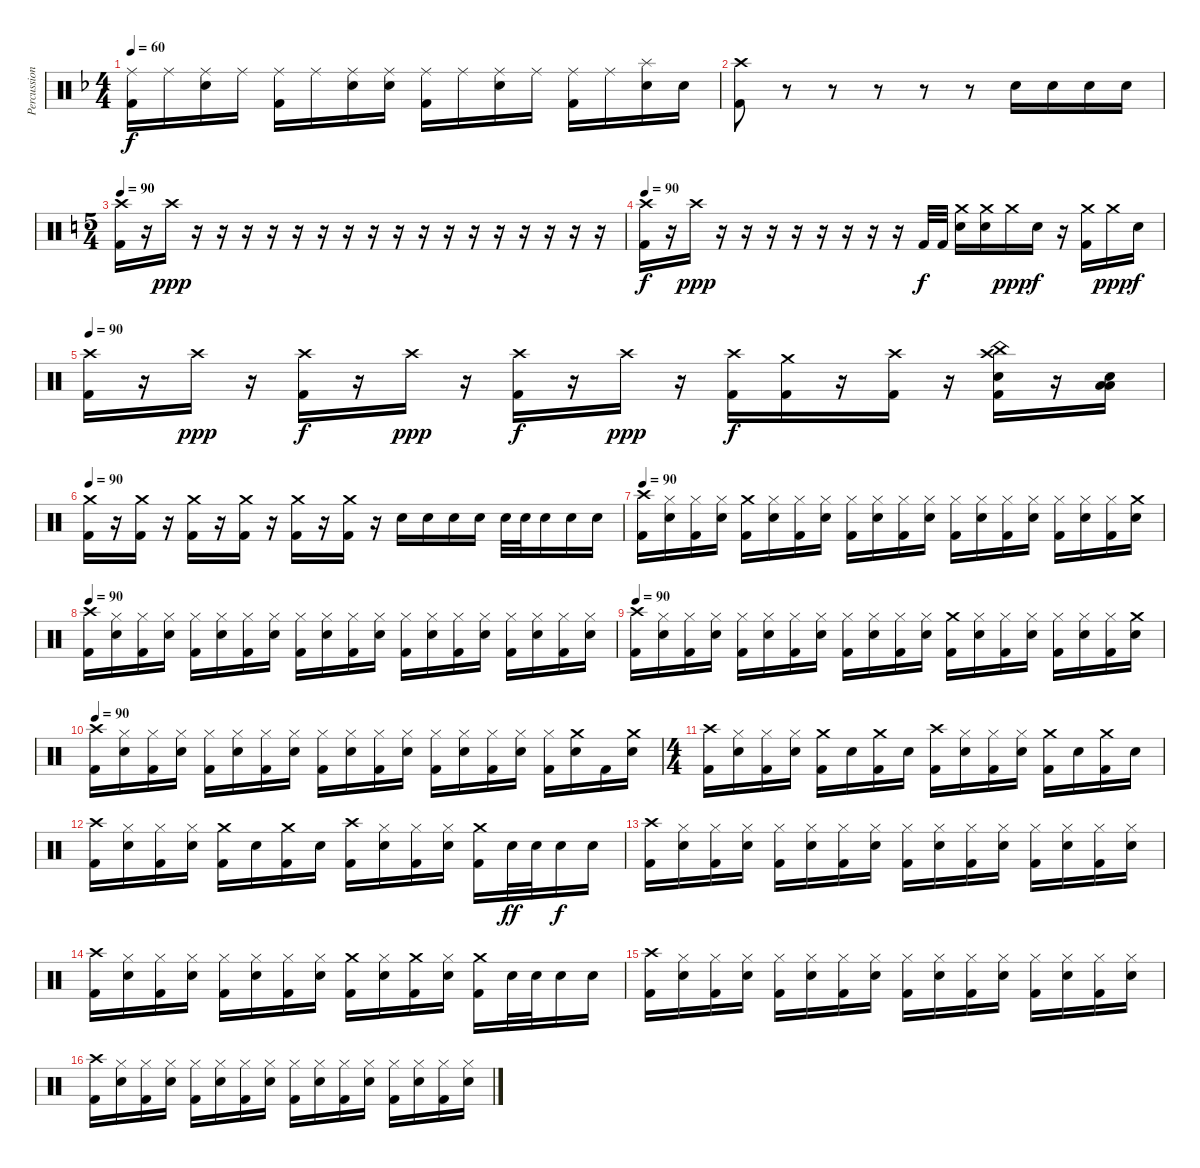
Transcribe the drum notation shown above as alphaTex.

\track ("Percussion" "Percussion") {instrument percussion}
\staff {score}
\articulation defaults
\ts (4 4)
\tempo 60
\clef neutral
\ks dminor
("Ride (middle)" "Kick (hit) 2").16{dy f} "Ride (middle)".16 ("Ride (middle)" "Snare (hit) 2").16 "Ride (middle)".16 ("Ride (middle)" "Kick (hit) 2").16 "Ride (middle)".16 ("Ride (middle)" "Snare (hit) 2").16 ("Ride (middle)" "Snare (hit) 2").16 ("Ride (middle)" "Kick (hit) 2").16 "Ride (middle)".16 ("Ride (middle)" "Snare (hit) 2").16 "Ride (middle)".16 ("Ride (middle)" "Kick (hit) 2").16 "Ride (middle)".16 ("Splash (hit)" "Snare (hit) 2").16 "Snare (hit) 2".16 |
("Crash high (hit)" "Kick (hit) 2").8 r.8 r.8 r.8 r.8 r.8 "Snare (hit) 2".16 "Snare (hit) 2".16 "Snare (hit) 2".16 "Snare (hit) 2".16 |
\ts (5 4)
\tempo 90
\ks c
("Crash high (hit)" "Kick (hit) 2").16 r.16 "Crash high (hit)".16{dy ppp} r.16 r.16 r.16 r.16 r.16 r.16 r.16 r.16 r.16 r.16 r.16 r.16 r.16 r.16 r.16 r.16 r.16 |
\tempo 90
("Crash high (hit)" "Kick (hit) 2").16{dy f} r.16 "Crash high (hit)".16{dy ppp} r.16 r.16 r.16 r.16 r.16 r.16 r.16 r.16 "Kick (hit) 2".32{dy f} "Kick (hit) 2".32 ("Crash medium (hit)" "Snare (hit) 2").16 ("Crash medium (hit)" "Snare (hit) 2").16 "Crash medium (hit)".16{dy ppp} "Snare (hit) 2".16{dy f} r.16 ("Crash medium (hit)" "Kick (hit) 2").16 "Crash medium (hit)".16{dy ppp} "Snare (hit) 2".16{dy f} |
\tempo 90
("Crash high (hit)" "Kick (hit) 2").16 r.16 "Crash high (hit)".16{dy ppp} r.16 ("Crash high (hit)" "Kick (hit) 2").16{dy f} r.16 "Crash high (hit)".16{dy ppp} r.16 ("Crash high (hit)" "Kick (hit) 2").16{dy f} r.16 "Crash high (hit)".16{dy ppp} r.16 ("Crash high (hit)" "Kick (hit) 2").16{dy f} ("Crash medium (hit)" "Kick (hit) 2").16 r.16 ("Crash high (hit)" "Kick (hit) 2").16 r.16 ("China (hit)" "Snare (hit) 2" "Crash high (hit)" "Kick (hit) 2").16 r.16 ("Low Tom (hit)" "Low Floor Tom (hit)" "Snare (hit) 2").16 |
\tempo 90
("Crash medium (hit)" "Kick (hit) 2").16 r.16 ("Crash medium (hit)" "Kick (hit) 2").16 r.16 ("Crash medium (hit)" "Kick (hit) 2").16 r.16 ("Crash medium (hit)" "Kick (hit) 2").16 r.16 ("Crash medium (hit)" "Kick (hit) 2").16 r.16 ("Crash medium (hit)" "Kick (hit) 2").16 r.16 "Snare (hit) 2".16 "Snare (hit) 2".16 "Snare (hit) 2".16 "Snare (hit) 2".16 "Snare (hit) 2".32 "Snare (hit) 2".32 "Snare (hit) 2".16 "Snare (hit) 2".16 "Snare (hit) 2".16 |
\tempo 90
("Crash high (hit)" "Kick (hit) 2").16 ("Hi-Hat (closed)" "Snare (hit) 2").16 ("Hi-Hat (closed)" "Kick (hit) 2").16 ("Hi-Hat (closed)" "Snare (hit) 2").16 ("Crash medium (hit)" "Kick (hit) 2").16 ("Hi-Hat (closed)" "Snare (hit) 2").16 ("Hi-Hat (closed)" "Kick (hit) 2").16 ("Hi-Hat (closed)" "Snare (hit) 2").16 ("Hi-Hat (closed)" "Kick (hit) 2").16 ("Hi-Hat (closed)" "Snare (hit) 2").16 ("Hi-Hat (closed)" "Kick (hit) 2").16 ("Hi-Hat (closed)" "Snare (hit) 2").16 ("Hi-Hat (closed)" "Kick (hit) 2").16 ("Hi-Hat (closed)" "Snare (hit) 2").16 ("Hi-Hat (closed)" "Kick (hit) 2").16 ("Hi-Hat (closed)" "Snare (hit) 2").16 ("Hi-Hat (closed)" "Kick (hit) 2").16 ("Hi-Hat (closed)" "Snare (hit) 2").16 ("Hi-Hat (closed)" "Kick (hit) 2").16 ("Crash medium (hit)" "Snare (hit) 2").16 |
\tempo 90
("Crash high (hit)" "Kick (hit) 2").16 ("Hi-Hat (closed)" "Snare (hit) 2").16 ("Hi-Hat (closed)" "Kick (hit) 2").16 ("Hi-Hat (closed)" "Snare (hit) 2").16 ("Hi-Hat (closed)" "Kick (hit) 2").16 ("Hi-Hat (closed)" "Snare (hit) 2").16 ("Hi-Hat (closed)" "Kick (hit) 2").16 ("Hi-Hat (closed)" "Snare (hit) 2").16 ("Hi-Hat (closed)" "Kick (hit) 2").16 ("Hi-Hat (closed)" "Snare (hit) 2").16 ("Hi-Hat (closed)" "Kick (hit) 2").16 ("Hi-Hat (closed)" "Snare (hit) 2").16 ("Hi-Hat (closed)" "Kick (hit) 2").16 ("Hi-Hat (closed)" "Snare (hit) 2").16 ("Hi-Hat (closed)" "Kick (hit) 2").16 ("Hi-Hat (closed)" "Snare (hit) 2").16 ("Hi-Hat (closed)" "Kick (hit) 2").16 ("Hi-Hat (closed)" "Snare (hit) 2").16 ("Hi-Hat (closed)" "Kick (hit) 2").16 ("Hi-Hat (closed)" "Snare (hit) 2").16 |
\tempo 90
("Crash high (hit)" "Kick (hit) 2").16 ("Hi-Hat (closed)" "Snare (hit) 2").16 ("Hi-Hat (closed)" "Kick (hit) 2").16 ("Hi-Hat (closed)" "Snare (hit) 2").16 ("Hi-Hat (closed)" "Kick (hit) 2").16 ("Hi-Hat (closed)" "Snare (hit) 2").16 ("Hi-Hat (closed)" "Kick (hit) 2").16 ("Hi-Hat (closed)" "Snare (hit) 2").16 ("Hi-Hat (closed)" "Kick (hit) 2").16 ("Hi-Hat (closed)" "Snare (hit) 2").16 ("Hi-Hat (closed)" "Kick (hit) 2").16 ("Hi-Hat (closed)" "Snare (hit) 2").16 ("Crash medium (hit)" "Kick (hit) 2").16 ("Hi-Hat (closed)" "Snare (hit) 2").16 ("Hi-Hat (closed)" "Kick (hit) 2").16 ("Hi-Hat (closed)" "Snare (hit) 2").16 ("Hi-Hat (closed)" "Kick (hit) 2").16 ("Hi-Hat (closed)" "Snare (hit) 2").16 ("Hi-Hat (closed)" "Kick (hit) 2").16 ("Crash medium (hit)" "Snare (hit) 2").16 |
\tempo 90
("Crash high (hit)" "Kick (hit) 2").16 ("Hi-Hat (closed)" "Snare (hit) 2").16 ("Hi-Hat (closed)" "Kick (hit) 2").16 ("Hi-Hat (closed)" "Snare (hit) 2").16 ("Hi-Hat (closed)" "Kick (hit) 2").16 ("Hi-Hat (closed)" "Snare (hit) 2").16 ("Hi-Hat (closed)" "Kick (hit) 2").16 ("Hi-Hat (closed)" "Snare (hit) 2").16 ("Hi-Hat (closed)" "Kick (hit) 2").16 ("Hi-Hat (closed)" "Snare (hit) 2").16 ("Hi-Hat (closed)" "Kick (hit) 2").16 ("Hi-Hat (closed)" "Snare (hit) 2").16 ("Hi-Hat (closed)" "Kick (hit) 2").16 ("Hi-Hat (closed)" "Snare (hit) 2").16 ("Hi-Hat (closed)" "Kick (hit) 2").16 ("Hi-Hat (closed)" "Snare (hit) 2").16 ("Hi-Hat (closed)" "Kick (hit) 2").16 ("Crash medium (hit)" "Snare (hit) 2").16 "Kick (hit) 2".16 ("Crash medium (hit)" "Snare (hit) 2").16 |
\ts (4 4)
("Crash high (hit)" "Kick (hit) 2").16 ("Hi-Hat (closed)" "Snare (hit) 2").16 ("Hi-Hat (closed)" "Kick (hit) 2").16 ("Hi-Hat (closed)" "Snare (hit) 2").16 ("Crash medium (hit)" "Kick (hit) 2").16 "Snare (hit) 2".16 ("Crash medium (hit)" "Kick (hit) 2").16 "Snare (hit) 2".16 ("Crash high (hit)" "Kick (hit) 2").16 ("Hi-Hat (closed)" "Snare (hit) 2").16 ("Hi-Hat (closed)" "Kick (hit) 2").16 ("Hi-Hat (closed)" "Snare (hit) 2").16 ("Crash medium (hit)" "Kick (hit) 2").16 "Snare (hit) 2".16 ("Crash medium (hit)" "Kick (hit) 2").16 "Snare (hit) 2".16 |
("Crash high (hit)" "Kick (hit) 2").16 ("Hi-Hat (closed)" "Snare (hit) 2").16 ("Hi-Hat (closed)" "Kick (hit) 2").16 ("Hi-Hat (closed)" "Snare (hit) 2").16 ("Crash medium (hit)" "Kick (hit) 2").16 "Snare (hit) 2".16 ("Crash medium (hit)" "Kick (hit) 2").16 "Snare (hit) 2".16 ("Crash high (hit)" "Kick (hit) 2").16 ("Hi-Hat (closed)" "Snare (hit) 2").16 ("Hi-Hat (closed)" "Kick (hit) 2").16 ("Hi-Hat (closed)" "Snare (hit) 2").16 ("Crash medium (hit)" "Kick (hit) 2").16 "Snare (hit) 2".32{dy ff} "Snare (hit) 2".32 "Snare (hit) 2".16{dy f} "Snare (hit) 2".16 |
("Crash high (hit)" "Kick (hit) 2").16 ("Hi-Hat (closed)" "Snare (hit) 2").16 ("Hi-Hat (closed)" "Kick (hit) 2").16 ("Hi-Hat (closed)" "Snare (hit) 2").16 ("Hi-Hat (closed)" "Kick (hit) 2").16 ("Hi-Hat (closed)" "Snare (hit) 2").16 ("Hi-Hat (closed)" "Kick (hit) 2").16 ("Hi-Hat (closed)" "Snare (hit) 2").16 ("Hi-Hat (closed)" "Kick (hit) 2").16 ("Hi-Hat (closed)" "Snare (hit) 2").16 ("Hi-Hat (closed)" "Kick (hit) 2").16 ("Hi-Hat (closed)" "Snare (hit) 2").16 ("Hi-Hat (closed)" "Kick (hit) 2").16 ("Hi-Hat (closed)" "Snare (hit) 2").16 ("Hi-Hat (closed)" "Kick (hit) 2").16 ("Hi-Hat (closed)" "Snare (hit) 2").16 |
("Crash high (hit)" "Kick (hit) 2").16 ("Hi-Hat (closed)" "Snare (hit) 2").16 ("Hi-Hat (closed)" "Kick (hit) 2").16 ("Hi-Hat (closed)" "Snare (hit) 2").16 ("Hi-Hat (closed)" "Kick (hit) 2").16 ("Hi-Hat (closed)" "Snare (hit) 2").16 ("Hi-Hat (closed)" "Kick (hit) 2").16 ("Hi-Hat (closed)" "Snare (hit) 2").16 ("Crash medium (hit)" "Kick (hit) 2").16 ("Hi-Hat (closed)" "Snare (hit) 2").16 ("Crash medium (hit)" "Kick (hit) 2").16 ("Hi-Hat (closed)" "Snare (hit) 2").16 ("Crash medium (hit)" "Kick (hit) 2").16 "Snare (hit) 2".32 "Snare (hit) 2".32 "Snare (hit) 2".16 "Snare (hit) 2".16 |
("Crash high (hit)" "Kick (hit) 2").16 ("Hi-Hat (closed)" "Snare (hit) 2").16 ("Hi-Hat (closed)" "Kick (hit) 2").16 ("Hi-Hat (closed)" "Snare (hit) 2").16 ("Hi-Hat (closed)" "Kick (hit) 2").16 ("Hi-Hat (closed)" "Snare (hit) 2").16 ("Hi-Hat (closed)" "Kick (hit) 2").16 ("Hi-Hat (closed)" "Snare (hit) 2").16 ("Hi-Hat (closed)" "Kick (hit) 2").16 ("Hi-Hat (closed)" "Snare (hit) 2").16 ("Hi-Hat (closed)" "Kick (hit) 2").16 ("Hi-Hat (closed)" "Snare (hit) 2").16 ("Hi-Hat (closed)" "Kick (hit) 2").16 ("Hi-Hat (closed)" "Snare (hit) 2").16 ("Hi-Hat (closed)" "Kick (hit) 2").16 ("Hi-Hat (closed)" "Snare (hit) 2").16 |
("Crash high (hit)" "Kick (hit) 2").16 ("Hi-Hat (closed)" "Snare (hit) 2").16 ("Hi-Hat (closed)" "Kick (hit) 2").16 ("Hi-Hat (closed)" "Snare (hit) 2").16 ("Hi-Hat (closed)" "Kick (hit) 2").16 ("Hi-Hat (closed)" "Snare (hit) 2").16 ("Hi-Hat (closed)" "Kick (hit) 2").16 ("Hi-Hat (closed)" "Snare (hit) 2").16 ("Hi-Hat (closed)" "Kick (hit) 2").16 ("Hi-Hat (closed)" "Snare (hit) 2").16 ("Hi-Hat (closed)" "Kick (hit) 2").16 ("Hi-Hat (closed)" "Snare (hit) 2").16 ("Hi-Hat (closed)" "Kick (hit) 2").16 ("Hi-Hat (closed)" "Snare (hit) 2").16 ("Hi-Hat (closed)" "Kick (hit) 2").16 ("Hi-Hat (closed)" "Snare (hit) 2").16
